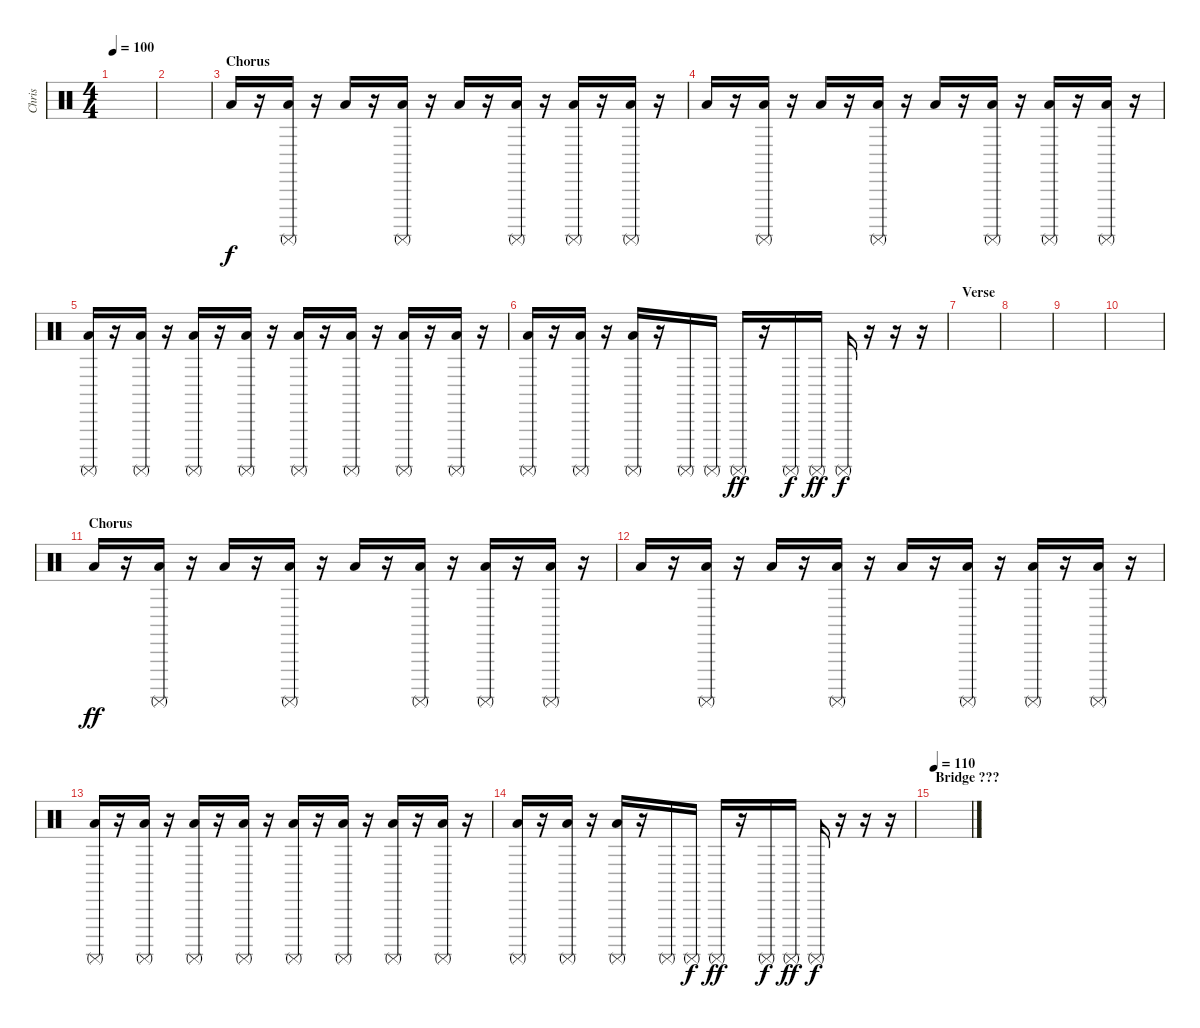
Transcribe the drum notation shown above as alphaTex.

\track ("Chris" "Chris") {instrument percussion}
\staff {score}
\articulation defaults
\ts (4 4)
\tempo 100
\clef neutral
\ks c
|
|
\section ("" "Chorus")
"Low Floor Tom (hit)".16 r.16 ("Surdo (mute)" "Low Floor Tom (hit)").16 r.16 "Low Floor Tom (hit)".16 r.16 ("Surdo (mute)" "Low Floor Tom (hit)").16 r.16 "Low Floor Tom (hit)".16 r.16 ("Surdo (mute)" "Low Floor Tom (hit)").16 r.16 ("Surdo (mute)" "Low Floor Tom (hit)").16 r.16 ("Surdo (mute)" "Low Floor Tom (hit)").16 r.16 |
"Low Floor Tom (hit)".16 r.16 ("Surdo (mute)" "Low Floor Tom (hit)").16 r.16 "Low Floor Tom (hit)".16 r.16 ("Surdo (mute)" "Low Floor Tom (hit)").16 r.16 "Low Floor Tom (hit)".16 r.16 ("Surdo (mute)" "Low Floor Tom (hit)").16 r.16 ("Surdo (mute)" "Low Floor Tom (hit)").16 r.16 ("Surdo (mute)" "Low Floor Tom (hit)").16 r.16 |
("Surdo (mute)" "Low Floor Tom (hit)").16 r.16 ("Surdo (mute)" "Low Floor Tom (hit)").16 r.16 ("Surdo (mute)" "Low Floor Tom (hit)").16 r.16 ("Surdo (mute)" "Low Floor Tom (hit)").16 r.16 ("Surdo (mute)" "Low Floor Tom (hit)").16 r.16 ("Surdo (mute)" "Low Floor Tom (hit)").16 r.16 ("Surdo (mute)" "Low Floor Tom (hit)").16 r.16 ("Surdo (mute)" "Low Floor Tom (hit)").16 r.16 |
("Surdo (mute)" "Low Floor Tom (hit)").16 r.16 ("Surdo (mute)" "Low Floor Tom (hit)").16 r.16 ("Surdo (mute)" "Low Floor Tom (hit)").16 r.16 "Surdo (mute)".16 "Surdo (mute)".16{dy f} "Surdo (mute)".16{dy ff} r.16 "Surdo (mute)".16{dy f} "Surdo (mute)".16{dy ff} "Surdo (mute)".16{dy f} r.16 r.16 r.16 |
\section ("" "Verse")
|
|
|
|
\section ("" "Chorus")
"Low Floor Tom (hit)".16{dy ff} r.16 ("Surdo (mute)" "Low Floor Tom (hit)").16 r.16 "Low Floor Tom (hit)".16 r.16 ("Surdo (mute)" "Low Floor Tom (hit)").16 r.16 "Low Floor Tom (hit)".16 r.16 ("Surdo (mute)" "Low Floor Tom (hit)").16 r.16 ("Surdo (mute)" "Low Floor Tom (hit)").16 r.16 ("Surdo (mute)" "Low Floor Tom (hit)").16 r.16 |
"Low Floor Tom (hit)".16 r.16 ("Surdo (mute)" "Low Floor Tom (hit)").16 r.16 "Low Floor Tom (hit)".16 r.16 ("Surdo (mute)" "Low Floor Tom (hit)").16 r.16 "Low Floor Tom (hit)".16 r.16 ("Surdo (mute)" "Low Floor Tom (hit)").16 r.16 ("Surdo (mute)" "Low Floor Tom (hit)").16 r.16 ("Surdo (mute)" "Low Floor Tom (hit)").16 r.16 |
("Surdo (mute)" "Low Floor Tom (hit)").16 r.16 ("Surdo (mute)" "Low Floor Tom (hit)").16 r.16 ("Surdo (mute)" "Low Floor Tom (hit)").16 r.16 ("Surdo (mute)" "Low Floor Tom (hit)").16 r.16 ("Surdo (mute)" "Low Floor Tom (hit)").16 r.16 ("Surdo (mute)" "Low Floor Tom (hit)").16 r.16 ("Surdo (mute)" "Low Floor Tom (hit)").16 r.16 ("Surdo (mute)" "Low Floor Tom (hit)").16 r.16 |
("Surdo (mute)" "Low Floor Tom (hit)").16 r.16 ("Surdo (mute)" "Low Floor Tom (hit)").16 r.16 ("Surdo (mute)" "Low Floor Tom (hit)").16 r.16 "Surdo (mute)".16 "Surdo (mute)".16{dy f} "Surdo (mute)".16{dy ff} r.16 "Surdo (mute)".16{dy f} "Surdo (mute)".16{dy ff} "Surdo (mute)".16{dy f} r.16 r.16 r.16 |
\section ("" "Bridge ???")
\tempo 110
